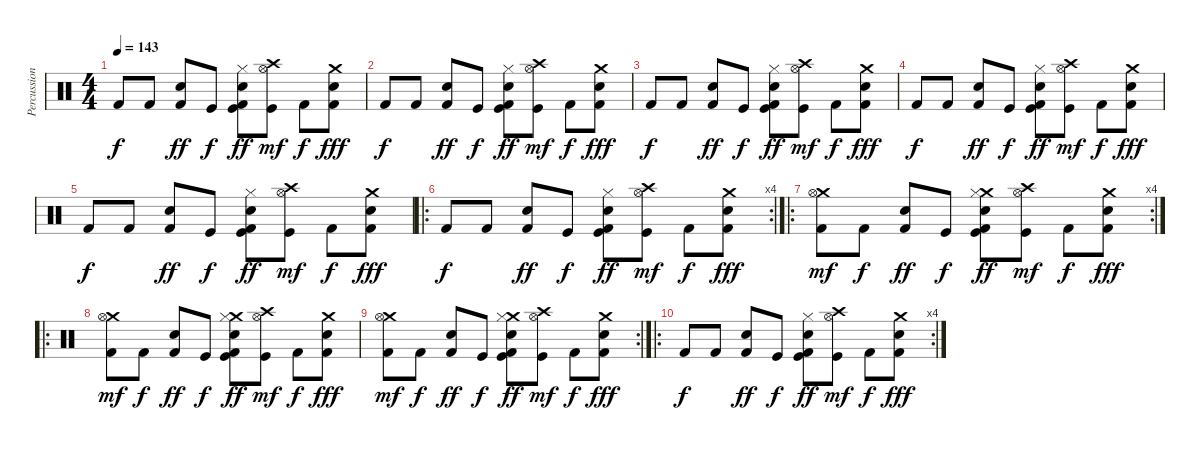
\track ("Percussion" "Percussion") {instrument percussion}
\staff {score}
\articulation defaults
\ts (4 4)
\tempo 143
\clef neutral
\ks c "Kick (hit) 2".8{dy f} "Kick (hit) 2".8
("Electric Snare (hit)" "Kick (hit) 2").8{dy ff} "Kick (hit)".8{dy f} ("Snare (hit) 2" "Kick (hit)" "Kick (hit) 2" "Hi-Hat (closed)").8{dy ff} ("Hi-Hat (open)" "Kick (hit)" "Crash high (hit)").8{dy mf} "Kick (hit) 2".8{dy f} ("Crash medium (hit)" "Electric Snare (hit)" "Kick (hit) 2").8{dy fff} |
"Kick (hit) 2".8{dy f} "Kick (hit) 2".8 ("Electric Snare (hit)" "Kick (hit) 2").8{dy ff} "Kick (hit)".8{dy f} ("Snare (hit) 2" "Kick (hit)" "Kick (hit) 2" "Hi-Hat (closed)").8{dy ff} ("Hi-Hat (open)" "Kick (hit)" "Crash high (hit)").8{dy mf} "Kick (hit) 2".8{dy f} ("Crash medium (hit)" "Electric Snare (hit)" "Kick (hit) 2").8{dy fff} |
"Kick (hit) 2".8{dy f} "Kick (hit) 2".8 ("Electric Snare (hit)" "Kick (hit) 2").8{dy ff} "Kick (hit)".8{dy f} ("Snare (hit) 2" "Kick (hit)" "Kick (hit) 2" "Hi-Hat (closed)").8{dy ff} ("Hi-Hat (open)" "Kick (hit)" "Crash high (hit)").8{dy mf} "Kick (hit) 2".8{dy f} ("Crash medium (hit)" "Electric Snare (hit)" "Kick (hit) 2").8{dy fff} |
"Kick (hit) 2".8{dy f} "Kick (hit) 2".8 ("Electric Snare (hit)" "Kick (hit) 2").8{dy ff} "Kick (hit)".8{dy f} ("Snare (hit) 2" "Kick (hit)" "Kick (hit) 2" "Hi-Hat (closed)").8{dy ff} ("Hi-Hat (open)" "Kick (hit)" "Crash high (hit)").8{dy mf} "Kick (hit) 2".8{dy f} ("Crash medium (hit)" "Electric Snare (hit)" "Kick (hit) 2").8{dy fff} |
"Kick (hit) 2".8{dy f} "Kick (hit) 2".8 ("Electric Snare (hit)" "Kick (hit) 2").8{dy ff} "Kick (hit)".8{dy f} ("Snare (hit) 2" "Kick (hit)" "Kick (hit) 2" "Hi-Hat (closed)").8{dy ff} ("Hi-Hat (open)" "Kick (hit)" "Crash high (hit)").8{dy mf} "Kick (hit) 2".8{dy f} ("Crash medium (hit)" "Electric Snare (hit)" "Kick (hit) 2").8{dy fff} |
\ro
\rc 4 "Kick (hit) 2".8{dy f} "Kick (hit) 2".8
("Electric Snare (hit)" "Kick (hit) 2").8{dy ff} "Kick (hit)".8{dy f} ("Snare (hit) 2" "Kick (hit)" "Kick (hit) 2" "Hi-Hat (closed)").8{dy ff} ("Hi-Hat (open)" "Kick (hit)" "Crash high (hit)").8{dy mf} "Kick (hit) 2".8{dy f} ("Crash medium (hit)" "Electric Snare (hit)" "Kick (hit) 2").8{dy fff} |
\ro
\rc 4
("Crash medium (hit)" "Kick (hit) 2" "Hi-Hat (open)").8{dy mf} "Kick (hit) 2".8{dy f} ("Electric Snare (hit)" "Kick (hit) 2").8{dy ff} "Kick (hit)".8{dy f} ("Crash medium (hit)" "Snare (hit) 2" "Kick (hit)" "Kick (hit) 2" "Hi-Hat (closed)").8{dy ff} ("Hi-Hat (open)" "Kick (hit)" "Crash high (hit)").8{dy mf} "Kick (hit) 2".8{dy f} ("Crash medium (hit)" "Electric Snare (hit)" "Kick (hit) 2").8{dy fff} |
\ro
("Crash medium (hit)" "Kick (hit) 2" "Hi-Hat (open)").8{dy mf} "Kick (hit) 2".8{dy f} ("Electric Snare (hit)" "Kick (hit) 2").8{dy ff} "Kick (hit)".8{dy f} ("Crash medium (hit)" "Snare (hit) 2" "Kick (hit)" "Kick (hit) 2" "Hi-Hat (closed)").8{dy ff} ("Hi-Hat (open)" "Kick (hit)" "Crash high (hit)").8{dy mf} "Kick (hit) 2".8{dy f} ("Crash medium (hit)" "Electric Snare (hit)" "Kick (hit) 2").8{dy fff} |
\rc 2
("Crash medium (hit)" "Kick (hit) 2" "Hi-Hat (open)").8{dy mf} "Kick (hit) 2".8{dy f} ("Electric Snare (hit)" "Kick (hit) 2").8{dy ff} "Kick (hit)".8{dy f} ("Crash medium (hit)" "Snare (hit) 2" "Kick (hit)" "Kick (hit) 2" "Hi-Hat (closed)").8{dy ff} ("Hi-Hat (open)" "Kick (hit)" "Crash high (hit)").8{dy mf} "Kick (hit) 2".8{dy f} ("Crash medium (hit)" "Electric Snare (hit)" "Kick (hit) 2").8{dy fff} |
\ro
\rc 4 "Kick (hit) 2".8{dy f} "Kick (hit) 2".8
("Electric Snare (hit)" "Kick (hit) 2").8{dy ff} "Kick (hit)".8{dy f} ("Snare (hit) 2" "Kick (hit)" "Kick (hit) 2" "Hi-Hat (closed)").8{dy ff} ("Hi-Hat (open)" "Kick (hit)" "Crash high (hit)").8{dy mf} "Kick (hit) 2".8{dy f} ("Crash medium (hit)" "Electric Snare (hit)" "Kick (hit) 2").8{dy fff}
